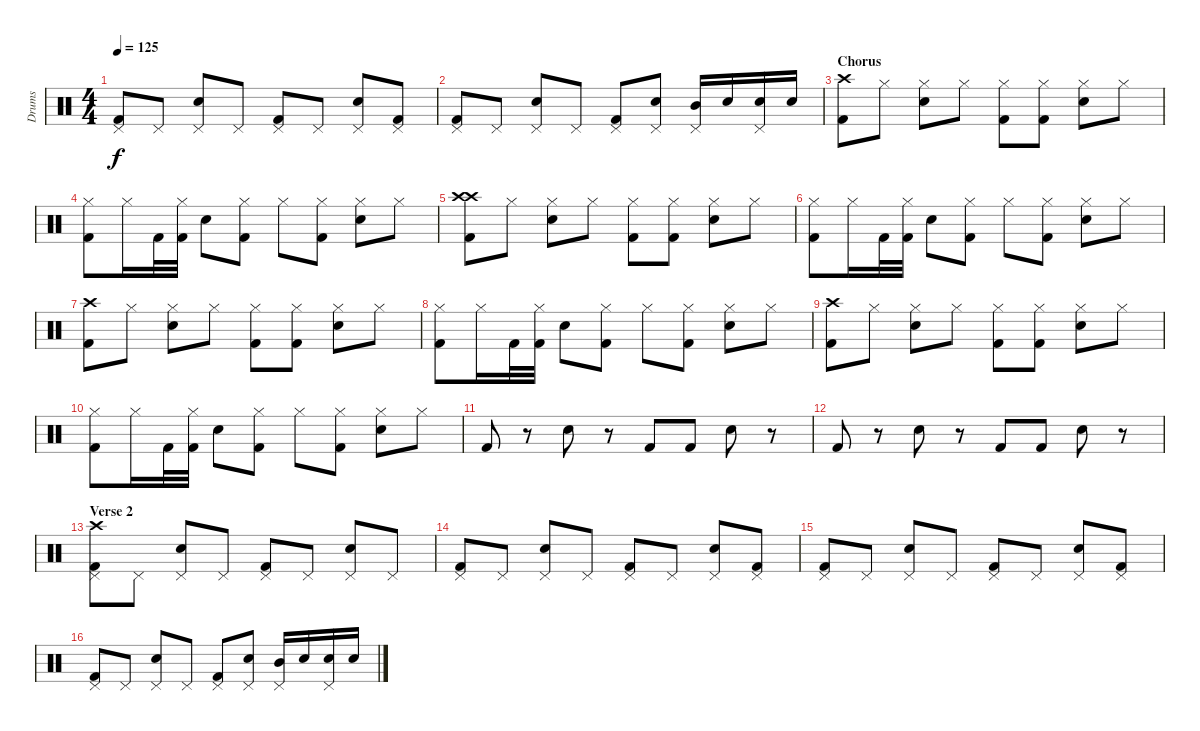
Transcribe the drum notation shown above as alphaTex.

\track ("Drums" "Drums") {instrument percussion}
\staff {score}
\articulation defaults
\ts (4 4)
\tempo 125
\clef neutral
\ks c
("Kick (hit) 2" "Pedal Hi-Hat (hit)").8{dy f} "Pedal Hi-Hat (hit)".8 ("Electric Snare (hit)" "Pedal Hi-Hat (hit)").8 "Pedal Hi-Hat (hit)".8 ("Kick (hit) 2" "Pedal Hi-Hat (hit)").8 "Pedal Hi-Hat (hit)".8 ("Electric Snare (hit)" "Pedal Hi-Hat (hit)").8 ("Kick (hit) 2" "Pedal Hi-Hat (hit)").8 |
("Kick (hit) 2" "Pedal Hi-Hat (hit)").8 "Pedal Hi-Hat (hit)".8 ("Electric Snare (hit)" "Pedal Hi-Hat (hit)").8 "Pedal Hi-Hat (hit)".8 ("Kick (hit) 2" "Pedal Hi-Hat (hit)").8 ("Electric Snare (hit)" "Pedal Hi-Hat (hit)").8 ("Mid Tom (hit)" "Pedal Hi-Hat (hit)").16 "Electric Snare (hit)".16 ("Electric Snare (hit)" "Pedal Hi-Hat (hit)").16 "Electric Snare (hit)".16 |
\section ("" "Chorus")
("Crash high (hit)" "Kick (hit) 2").8 "Hi-Hat (closed)".8 ("Hi-Hat (closed)" "Electric Snare (hit)").8 "Hi-Hat (closed)".8 ("Hi-Hat (closed)" "Kick (hit) 2").8 ("Hi-Hat (closed)" "Kick (hit) 2").8 ("Hi-Hat (closed)" "Electric Snare (hit)").8 "Hi-Hat (closed)".8 |
("Hi-Hat (closed)" "Kick (hit) 2").8 "Hi-Hat (closed)".16 "Kick (hit) 2".32 ("Hi-Hat (closed)" "Kick (hit) 2").32 "Electric Snare (hit)".8 ("Hi-Hat (closed)" "Kick (hit) 2").8 "Hi-Hat (closed)".8 ("Hi-Hat (closed)" "Kick (hit) 2").8 ("Hi-Hat (closed)" "Electric Snare (hit)").8 "Hi-Hat (closed)".8 |
("Crash high (hit)" "Crash high (hit)" "Kick (hit) 2").8 "Hi-Hat (closed)".8 ("Hi-Hat (closed)" "Electric Snare (hit)").8 "Hi-Hat (closed)".8 ("Hi-Hat (closed)" "Kick (hit) 2").8 ("Hi-Hat (closed)" "Kick (hit) 2").8 ("Hi-Hat (closed)" "Electric Snare (hit)").8 "Hi-Hat (closed)".8 |
("Hi-Hat (closed)" "Kick (hit) 2").8 "Hi-Hat (closed)".16 "Kick (hit) 2".32 ("Hi-Hat (closed)" "Kick (hit) 2").32 "Electric Snare (hit)".8 ("Hi-Hat (closed)" "Kick (hit) 2").8 "Hi-Hat (closed)".8 ("Hi-Hat (closed)" "Kick (hit) 2").8 ("Hi-Hat (closed)" "Electric Snare (hit)").8 "Hi-Hat (closed)".8 |
("Crash high (hit)" "Kick (hit) 2").8 "Hi-Hat (closed)".8 ("Hi-Hat (closed)" "Electric Snare (hit)").8 "Hi-Hat (closed)".8 ("Hi-Hat (closed)" "Kick (hit) 2").8 ("Hi-Hat (closed)" "Kick (hit) 2").8 ("Hi-Hat (closed)" "Electric Snare (hit)").8 "Hi-Hat (closed)".8 |
("Hi-Hat (closed)" "Kick (hit) 2").8 "Hi-Hat (closed)".16 "Kick (hit) 2".32 ("Hi-Hat (closed)" "Kick (hit) 2").32 "Electric Snare (hit)".8 ("Hi-Hat (closed)" "Kick (hit) 2").8 "Hi-Hat (closed)".8 ("Hi-Hat (closed)" "Kick (hit) 2").8 ("Hi-Hat (closed)" "Electric Snare (hit)").8 "Hi-Hat (closed)".8 |
("Crash high (hit)" "Kick (hit) 2").8 "Hi-Hat (closed)".8 ("Hi-Hat (closed)" "Electric Snare (hit)").8 "Hi-Hat (closed)".8 ("Hi-Hat (closed)" "Kick (hit) 2").8 ("Hi-Hat (closed)" "Kick (hit) 2").8 ("Hi-Hat (closed)" "Electric Snare (hit)").8 "Hi-Hat (closed)".8 |
("Hi-Hat (closed)" "Kick (hit) 2").8 "Hi-Hat (closed)".16 "Kick (hit) 2".32 ("Hi-Hat (closed)" "Kick (hit) 2").32 "Electric Snare (hit)".8 ("Hi-Hat (closed)" "Kick (hit) 2").8 "Hi-Hat (closed)".8 ("Hi-Hat (closed)" "Kick (hit) 2").8 ("Hi-Hat (closed)" "Electric Snare (hit)").8 "Hi-Hat (closed)".8 |
"Kick (hit) 2".8 r.8 "Electric Snare (hit)".8 r.8 "Kick (hit) 2".8 "Kick (hit) 2".8 "Electric Snare (hit)".8 r.8 |
"Kick (hit) 2".8 r.8 "Electric Snare (hit)".8 r.8 "Kick (hit) 2".8 "Kick (hit) 2".8 "Electric Snare (hit)".8 r.8 |
\section ("" "Verse 2")
("Crash high (hit)" "Kick (hit) 2" "Pedal Hi-Hat (hit)").8 "Pedal Hi-Hat (hit)".8 ("Electric Snare (hit)" "Pedal Hi-Hat (hit)").8 "Pedal Hi-Hat (hit)".8 ("Kick (hit) 2" "Pedal Hi-Hat (hit)").8 "Pedal Hi-Hat (hit)".8 ("Electric Snare (hit)" "Pedal Hi-Hat (hit)").8 "Pedal Hi-Hat (hit)".8 |
("Kick (hit) 2" "Pedal Hi-Hat (hit)").8 "Pedal Hi-Hat (hit)".8 ("Electric Snare (hit)" "Pedal Hi-Hat (hit)").8 "Pedal Hi-Hat (hit)".8 ("Kick (hit) 2" "Pedal Hi-Hat (hit)").8 "Pedal Hi-Hat (hit)".8 ("Electric Snare (hit)" "Pedal Hi-Hat (hit)").8 ("Kick (hit) 2" "Pedal Hi-Hat (hit)").8 |
("Kick (hit) 2" "Pedal Hi-Hat (hit)").8 "Pedal Hi-Hat (hit)".8 ("Electric Snare (hit)" "Pedal Hi-Hat (hit)").8 "Pedal Hi-Hat (hit)".8 ("Kick (hit) 2" "Pedal Hi-Hat (hit)").8 "Pedal Hi-Hat (hit)".8 ("Electric Snare (hit)" "Pedal Hi-Hat (hit)").8 ("Kick (hit) 2" "Pedal Hi-Hat (hit)").8 |
("Kick (hit) 2" "Pedal Hi-Hat (hit)").8 "Pedal Hi-Hat (hit)".8 ("Electric Snare (hit)" "Pedal Hi-Hat (hit)").8 "Pedal Hi-Hat (hit)".8 ("Kick (hit) 2" "Pedal Hi-Hat (hit)").8 ("Electric Snare (hit)" "Pedal Hi-Hat (hit)").8 ("Mid Tom (hit)" "Pedal Hi-Hat (hit)").16 "Electric Snare (hit)".16 ("Electric Snare (hit)" "Pedal Hi-Hat (hit)").16 "Electric Snare (hit)".16
